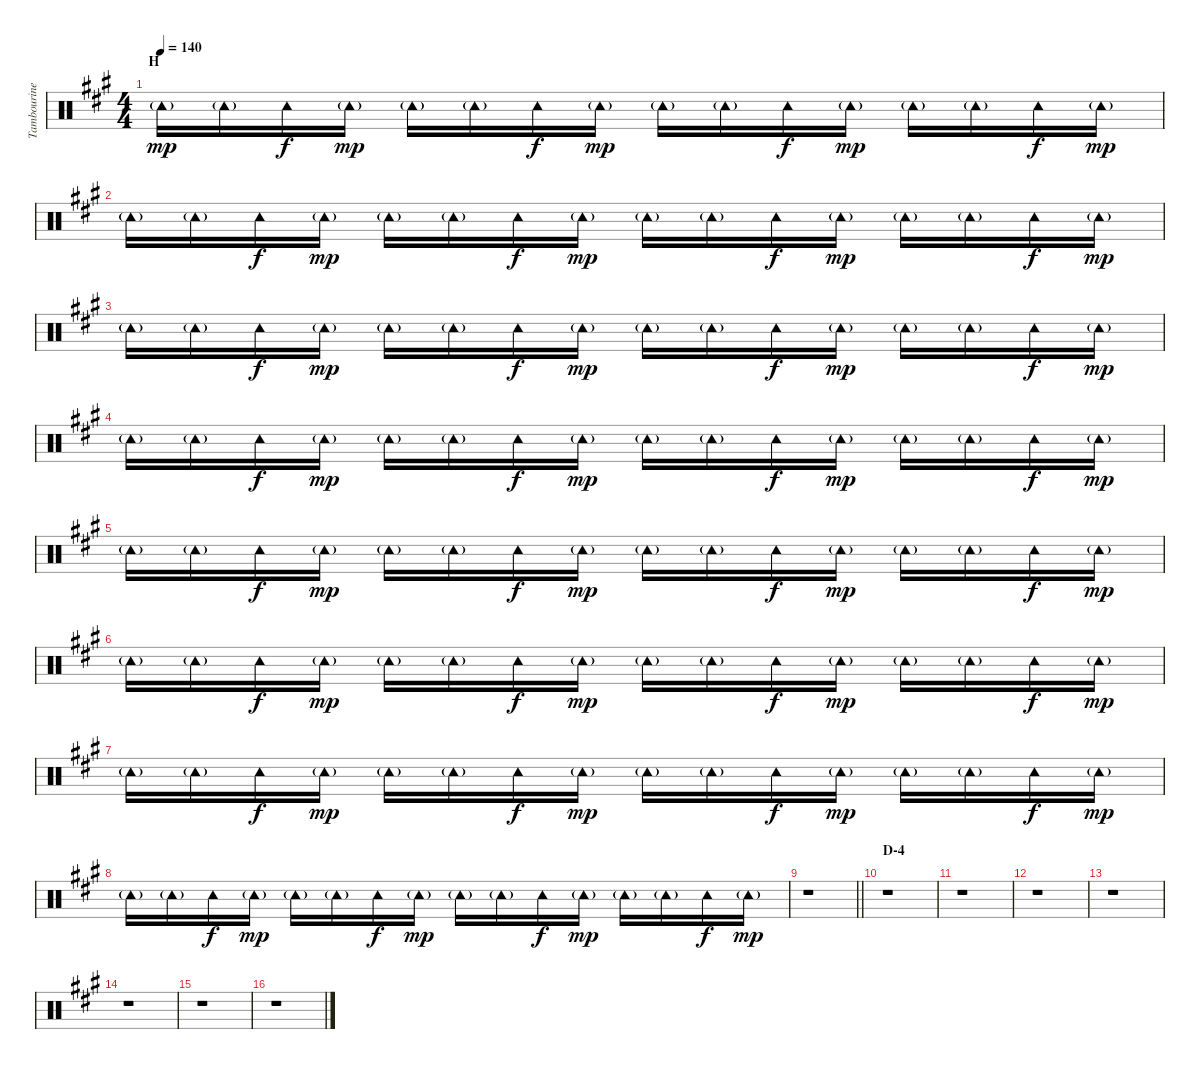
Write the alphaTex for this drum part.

\track ("Tambourine" "Tambourine") {instrument percussion}
\staff {score}
\articulation defaults
\ts (4 4)
\section ("" "H")
\tempo 140
\clef neutral
\ks a "Tambourine (hit)"{g}.16{dy mp} "Tambourine (hit)"{g}.16 "Tambourine (hit)".16{dy f} "Tambourine (hit)"{g}.16{dy mp} "Tambourine (hit)"{g}.16 "Tambourine (hit)"{g}.16 "Tambourine (hit)".16{dy f} "Tambourine (hit)"{g}.16{dy mp} "Tambourine (hit)"{g}.16 "Tambourine (hit)"{g}.16 "Tambourine (hit)".16{dy f} "Tambourine (hit)"{g}.16{dy mp} "Tambourine (hit)"{g}.16 "Tambourine (hit)"{g}.16 "Tambourine (hit)".16{dy f} "Tambourine (hit)"{g}.16{dy mp}
|
"Tambourine (hit)"{g}.16 "Tambourine (hit)"{g}.16 "Tambourine (hit)".16{dy f} "Tambourine (hit)"{g}.16{dy mp} "Tambourine (hit)"{g}.16 "Tambourine (hit)"{g}.16 "Tambourine (hit)".16{dy f} "Tambourine (hit)"{g}.16{dy mp} "Tambourine (hit)"{g}.16 "Tambourine (hit)"{g}.16 "Tambourine (hit)".16{dy f} "Tambourine (hit)"{g}.16{dy mp} "Tambourine (hit)"{g}.16 "Tambourine (hit)"{g}.16 "Tambourine (hit)".16{dy f} "Tambourine (hit)"{g}.16{dy mp} |
"Tambourine (hit)"{g}.16 "Tambourine (hit)"{g}.16 "Tambourine (hit)".16{dy f} "Tambourine (hit)"{g}.16{dy mp} "Tambourine (hit)"{g}.16 "Tambourine (hit)"{g}.16 "Tambourine (hit)".16{dy f} "Tambourine (hit)"{g}.16{dy mp} "Tambourine (hit)"{g}.16 "Tambourine (hit)"{g}.16 "Tambourine (hit)".16{dy f} "Tambourine (hit)"{g}.16{dy mp} "Tambourine (hit)"{g}.16 "Tambourine (hit)"{g}.16 "Tambourine (hit)".16{dy f} "Tambourine (hit)"{g}.16{dy mp} |
"Tambourine (hit)"{g}.16 "Tambourine (hit)"{g}.16 "Tambourine (hit)".16{dy f} "Tambourine (hit)"{g}.16{dy mp} "Tambourine (hit)"{g}.16 "Tambourine (hit)"{g}.16 "Tambourine (hit)".16{dy f} "Tambourine (hit)"{g}.16{dy mp} "Tambourine (hit)"{g}.16 "Tambourine (hit)"{g}.16 "Tambourine (hit)".16{dy f} "Tambourine (hit)"{g}.16{dy mp} "Tambourine (hit)"{g}.16 "Tambourine (hit)"{g}.16 "Tambourine (hit)".16{dy f} "Tambourine (hit)"{g}.16{dy mp} |
"Tambourine (hit)"{g}.16 "Tambourine (hit)"{g}.16 "Tambourine (hit)".16{dy f} "Tambourine (hit)"{g}.16{dy mp} "Tambourine (hit)"{g}.16 "Tambourine (hit)"{g}.16 "Tambourine (hit)".16{dy f} "Tambourine (hit)"{g}.16{dy mp} "Tambourine (hit)"{g}.16 "Tambourine (hit)"{g}.16 "Tambourine (hit)".16{dy f} "Tambourine (hit)"{g}.16{dy mp} "Tambourine (hit)"{g}.16 "Tambourine (hit)"{g}.16 "Tambourine (hit)".16{dy f} "Tambourine (hit)"{g}.16{dy mp} |
"Tambourine (hit)"{g}.16 "Tambourine (hit)"{g}.16 "Tambourine (hit)".16{dy f} "Tambourine (hit)"{g}.16{dy mp} "Tambourine (hit)"{g}.16 "Tambourine (hit)"{g}.16 "Tambourine (hit)".16{dy f} "Tambourine (hit)"{g}.16{dy mp} "Tambourine (hit)"{g}.16 "Tambourine (hit)"{g}.16 "Tambourine (hit)".16{dy f} "Tambourine (hit)"{g}.16{dy mp} "Tambourine (hit)"{g}.16 "Tambourine (hit)"{g}.16 "Tambourine (hit)".16{dy f} "Tambourine (hit)"{g}.16{dy mp} |
"Tambourine (hit)"{g}.16 "Tambourine (hit)"{g}.16 "Tambourine (hit)".16{dy f} "Tambourine (hit)"{g}.16{dy mp} "Tambourine (hit)"{g}.16 "Tambourine (hit)"{g}.16 "Tambourine (hit)".16{dy f} "Tambourine (hit)"{g}.16{dy mp} "Tambourine (hit)"{g}.16 "Tambourine (hit)"{g}.16 "Tambourine (hit)".16{dy f} "Tambourine (hit)"{g}.16{dy mp} "Tambourine (hit)"{g}.16 "Tambourine (hit)"{g}.16 "Tambourine (hit)".16{dy f} "Tambourine (hit)"{g}.16{dy mp} |
"Tambourine (hit)"{g}.16 "Tambourine (hit)"{g}.16 "Tambourine (hit)".16{dy f} "Tambourine (hit)"{g}.16{dy mp} "Tambourine (hit)"{g}.16 "Tambourine (hit)"{g}.16 "Tambourine (hit)".16{dy f} "Tambourine (hit)"{g}.16{dy mp} "Tambourine (hit)"{g}.16 "Tambourine (hit)"{g}.16 "Tambourine (hit)".16{dy f} "Tambourine (hit)"{g}.16{dy mp} "Tambourine (hit)"{g}.16 "Tambourine (hit)"{g}.16 "Tambourine (hit)".16{dy f} "Tambourine (hit)"{g}.16{dy mp} |
\barLineRight lightlight
r.1 |
\section ("" "D-4")
r.1 |
r.1 |
r.1 |
r.1 |
r.1 |
r.1 |
r.1
